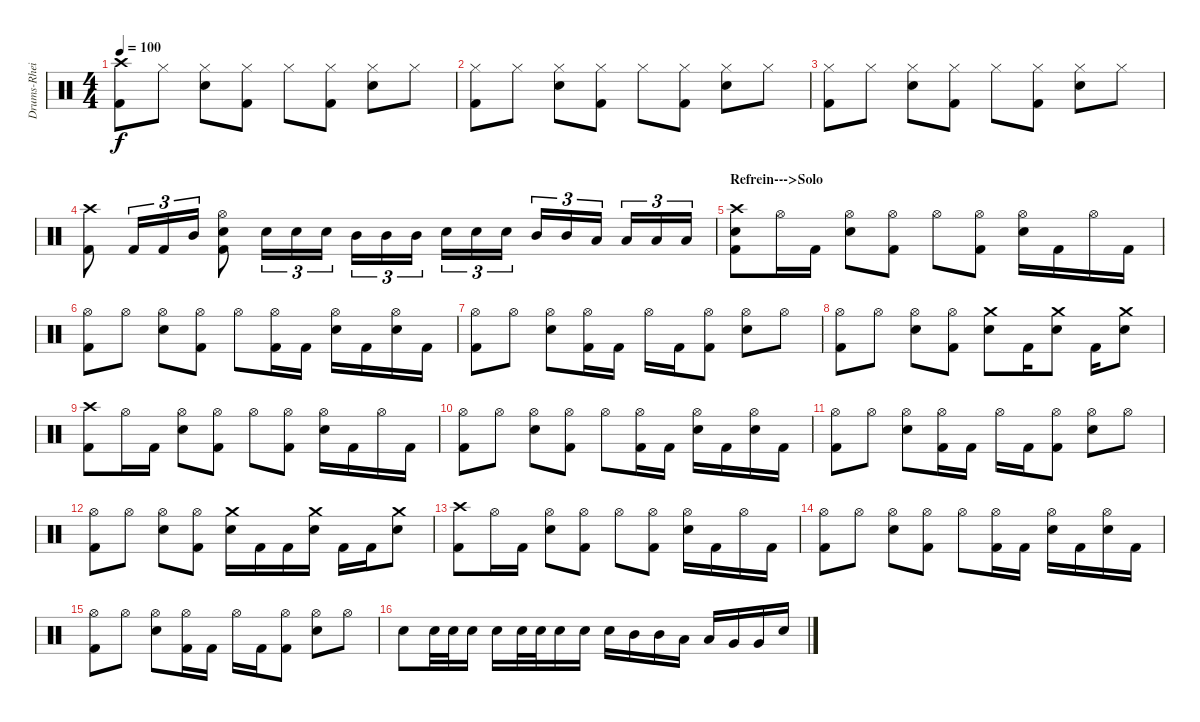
\track ("Drums-Rhein" "Drums-Rhei") {instrument percussion}
\staff {score}
\articulation defaults
\ts (4 4)
\tempo 100
\clef neutral
\ks c
("Crash high (hit)" "Kick (hit) 2").8{dy f} "Hi-Hat (closed)".8 ("Hi-Hat (closed)" "Snare (hit) 2").8 ("Hi-Hat (closed)" "Kick (hit) 2").8 "Hi-Hat (closed)".8 ("Hi-Hat (closed)" "Kick (hit) 2").8 ("Hi-Hat (closed)" "Snare (hit) 2").8 "Hi-Hat (closed)".8 |
("Hi-Hat (closed)" "Kick (hit) 2").8 "Hi-Hat (closed)".8 ("Hi-Hat (closed)" "Snare (hit) 2").8 ("Hi-Hat (closed)" "Kick (hit) 2").8 "Hi-Hat (closed)".8 ("Hi-Hat (closed)" "Kick (hit) 2").8 ("Hi-Hat (closed)" "Snare (hit) 2").8 "Hi-Hat (closed)".8 |
("Hi-Hat (closed)" "Kick (hit) 2").8 "Hi-Hat (closed)".8 ("Hi-Hat (closed)" "Snare (hit) 2").8 ("Hi-Hat (closed)" "Kick (hit) 2").8 "Hi-Hat (closed)".8 ("Hi-Hat (closed)" "Kick (hit) 2").8 ("Hi-Hat (closed)" "Snare (hit) 2").8 "Hi-Hat (closed)".8 |
("Crash high (hit)" "Kick (hit) 2").8 "Kick (hit) 2".16{tu (3 2)} "Kick (hit) 2".16{tu (3 2)} "Mid Tom (hit)".16{tu (3 2)} ("Hi-Hat (open)" "Snare (hit) 2" "Kick (hit) 2").8 "Snare (hit) 2".16{tu (3 2)} "Snare (hit) 2".16{tu (3 2)} "Snare (hit) 2".16{tu (3 2)} "Mid Tom (hit)".16{tu (3 2)} "Mid Tom (hit)".16{tu (3 2)} "Mid Tom (hit)".16{tu (3 2)} "Snare (hit) 2".16{tu (3 2)} "Snare (hit) 2".16{tu (3 2)} "Snare (hit) 2".16{tu (3 2)} "Mid Tom (hit)".16{tu (3 2)} "Mid Tom (hit)".16{tu (3 2)} "Low Tom (hit)".16{tu (3 2)} "Low Tom (hit)".16{tu (3 2)} "Low Floor Tom (hit)".16{tu (3 2)} "Low Floor Tom (hit)".16{tu (3 2)} |
\section ("" "Refrein--->Solo")
("Crash high (hit)" "Snare (hit) 2" "Kick (hit) 2").8 "Hi-Hat (open)".16 "Kick (hit) 2".16 ("Hi-Hat (open)" "Snare (hit) 2").8 ("Hi-Hat (open)" "Kick (hit) 2").8 "Hi-Hat (open)".8 ("Hi-Hat (open)" "Kick (hit) 2").8 ("Hi-Hat (open)" "Snare (hit) 2").16 "Kick (hit) 2".16 "Hi-Hat (open)".16 "Kick (hit) 2".16 |
("Hi-Hat (open)" "Kick (hit) 2").8 "Hi-Hat (open)".8 ("Hi-Hat (open)" "Snare (hit) 2").8 ("Hi-Hat (open)" "Kick (hit) 2").8 "Hi-Hat (open)".8 ("Hi-Hat (open)" "Kick (hit) 2").16 "Kick (hit) 2".16 ("Hi-Hat (open)" "Snare (hit) 2").16 "Kick (hit) 2".16 ("Hi-Hat (open)" "Snare (hit) 2").16 "Kick (hit) 2".16 |
("Hi-Hat (open)" "Kick (hit) 2").8 "Hi-Hat (open)".8 ("Hi-Hat (open)" "Snare (hit) 2").8 ("Hi-Hat (open)" "Kick (hit) 2").16 "Kick (hit) 2".16 "Hi-Hat (open)".16 "Kick (hit) 2".16 ("Hi-Hat (open)" "Kick (hit) 2").8 ("Hi-Hat (open)" "Snare (hit) 2").8 "Hi-Hat (open)".8 |
("Hi-Hat (open)" "Kick (hit) 2").8 "Hi-Hat (open)".8 ("Hi-Hat (open)" "Snare (hit) 2").8 ("Hi-Hat (open)" "Kick (hit) 2").8 ("Crash medium (hit)" "Snare (hit) 2").8 "Kick (hit) 2".16 ("Crash medium (hit)" "Snare (hit) 2").8 "Kick (hit) 2".16 ("Crash medium (hit)" "Snare (hit) 2").8 |
("Crash high (hit)" "Kick (hit) 2").8 "Hi-Hat (open)".16 "Kick (hit) 2".16 ("Hi-Hat (open)" "Snare (hit) 2").8 ("Hi-Hat (open)" "Kick (hit) 2").8 "Hi-Hat (open)".8 ("Hi-Hat (open)" "Kick (hit) 2").8 ("Hi-Hat (open)" "Snare (hit) 2").16 "Kick (hit) 2".16 "Hi-Hat (open)".16 "Kick (hit) 2".16 |
("Hi-Hat (open)" "Kick (hit) 2").8 "Hi-Hat (open)".8 ("Hi-Hat (open)" "Snare (hit) 2").8 ("Hi-Hat (open)" "Kick (hit) 2").8 "Hi-Hat (open)".8 ("Hi-Hat (open)" "Kick (hit) 2").16 "Kick (hit) 2".16 ("Hi-Hat (open)" "Snare (hit) 2").16 "Kick (hit) 2".16 ("Hi-Hat (open)" "Snare (hit) 2").16 "Kick (hit) 2".16 |
("Hi-Hat (open)" "Kick (hit) 2").8 "Hi-Hat (open)".8 ("Hi-Hat (open)" "Snare (hit) 2").8 ("Hi-Hat (open)" "Kick (hit) 2").16 "Kick (hit) 2".16 "Hi-Hat (open)".16 "Kick (hit) 2".16 ("Hi-Hat (open)" "Kick (hit) 2").8 ("Hi-Hat (open)" "Snare (hit) 2").8 "Hi-Hat (open)".8 |
("Hi-Hat (open)" "Kick (hit) 2").8 "Hi-Hat (open)".8 ("Hi-Hat (open)" "Snare (hit) 2").8 ("Hi-Hat (open)" "Kick (hit) 2").8 ("Crash medium (hit)" "Snare (hit) 2").16 "Kick (hit) 2".16 "Kick (hit) 2".16 ("Crash medium (hit)" "Snare (hit) 2").16 "Kick (hit) 2".16 "Kick (hit) 2".16 ("Crash medium (hit)" "Snare (hit) 2").8 |
("Crash high (hit)" "Kick (hit) 2").8 "Hi-Hat (open)".16 "Kick (hit) 2".16 ("Hi-Hat (open)" "Snare (hit) 2").8 ("Hi-Hat (open)" "Kick (hit) 2").8 "Hi-Hat (open)".8 ("Hi-Hat (open)" "Kick (hit) 2").8 ("Hi-Hat (open)" "Snare (hit) 2").16 "Kick (hit) 2".16 "Hi-Hat (open)".16 "Kick (hit) 2".16 |
("Hi-Hat (open)" "Kick (hit) 2").8 "Hi-Hat (open)".8 ("Hi-Hat (open)" "Snare (hit) 2").8 ("Hi-Hat (open)" "Kick (hit) 2").8 "Hi-Hat (open)".8 ("Hi-Hat (open)" "Kick (hit) 2").16 "Kick (hit) 2".16 ("Hi-Hat (open)" "Snare (hit) 2").16 "Kick (hit) 2".16 ("Hi-Hat (open)" "Snare (hit) 2").16 "Kick (hit) 2".16 |
("Hi-Hat (open)" "Kick (hit) 2").8 "Hi-Hat (open)".8 ("Hi-Hat (open)" "Snare (hit) 2").8 ("Hi-Hat (open)" "Kick (hit) 2").16 "Kick (hit) 2".16 "Hi-Hat (open)".16 "Kick (hit) 2".16 ("Hi-Hat (open)" "Kick (hit) 2").8 ("Hi-Hat (open)" "Snare (hit) 2").8 "Hi-Hat (open)".8 |
"Snare (hit) 2".8 "Snare (hit) 2".32 "Snare (hit) 2".32 "Snare (hit) 2".16 "Snare (hit) 2".16 "Snare (hit) 2".32 "Snare (hit) 2".32 "Snare (hit) 2".16 "Snare (hit) 2".16 "Snare (hit) 2".16 "Mid Tom (hit)".16 "Mid Tom (hit)".16 "Low Tom (hit)".16 "Low Tom (hit)".16 "Very Low Tom (hit)".16 "Very Low Tom (hit)".16 "Snare (hit) 2".16
